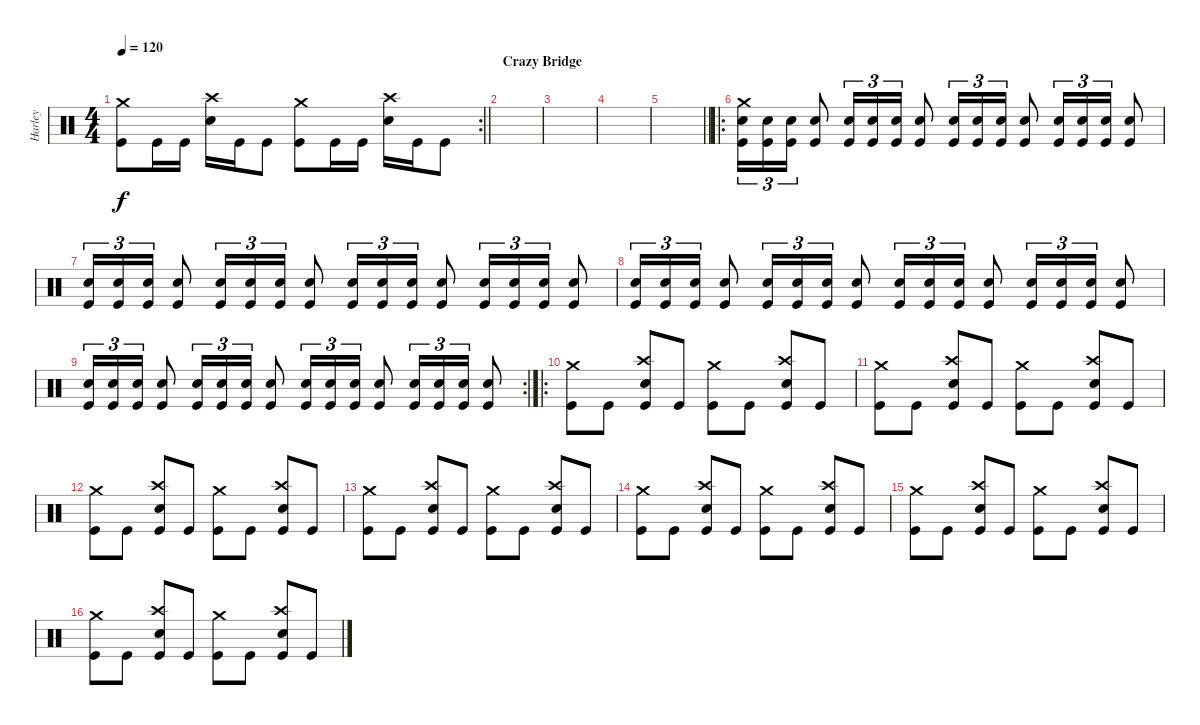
\track ("Harley" "Harley") {instrument percussion}
\staff {score}
\articulation defaults
\rc 2
\ts (4 4)
\tempo 120
\clef neutral
\barLineRight lightlight
\ks c
("Crash medium (hit)" "Kick (hit)").8{dy f} "Kick (hit)".16 "Kick (hit)".16 ("Crash high (hit)" "Snare (hit) 2").16 "Kick (hit)".16 "Kick (hit)".8 ("Crash medium (hit)" "Kick (hit)").8 "Kick (hit)".16 "Kick (hit)".16 ("Crash high (hit)" "Snare (hit) 2").16 "Kick (hit)".16 "Kick (hit)".8 |
\section ("" "Crazy Bridge")
|
|
|
\barLineRight lightlight
|
\ro
\section ("" "")
("Crash medium (hit)" "Snare (hit) 2" "Kick (hit)").16{tu (3 2)} ("Snare (hit) 2" "Kick (hit)").16{tu (3 2)} ("Snare (hit) 2" "Kick (hit)").16{tu (3 2)} ("Snare (hit) 2" "Kick (hit)").8 ("Snare (hit) 2" "Kick (hit)").16{tu (3 2)} ("Snare (hit) 2" "Kick (hit)").16{tu (3 2)} ("Snare (hit) 2" "Kick (hit)").16{tu (3 2)} ("Snare (hit) 2" "Kick (hit)").8 ("Snare (hit) 2" "Kick (hit)").16{tu (3 2)} ("Snare (hit) 2" "Kick (hit)").16{tu (3 2)} ("Snare (hit) 2" "Kick (hit)").16{tu (3 2)} ("Snare (hit) 2" "Kick (hit)").8 ("Snare (hit) 2" "Kick (hit)").16{tu (3 2)} ("Snare (hit) 2" "Kick (hit)").16{tu (3 2)} ("Snare (hit) 2" "Kick (hit)").16{tu (3 2)} ("Snare (hit) 2" "Kick (hit)").8 |
("Snare (hit) 2" "Kick (hit)").16{tu (3 2)} ("Snare (hit) 2" "Kick (hit)").16{tu (3 2)} ("Snare (hit) 2" "Kick (hit)").16{tu (3 2)} ("Snare (hit) 2" "Kick (hit)").8 ("Snare (hit) 2" "Kick (hit)").16{tu (3 2)} ("Snare (hit) 2" "Kick (hit)").16{tu (3 2)} ("Snare (hit) 2" "Kick (hit)").16{tu (3 2)} ("Snare (hit) 2" "Kick (hit)").8 ("Snare (hit) 2" "Kick (hit)").16{tu (3 2)} ("Snare (hit) 2" "Kick (hit)").16{tu (3 2)} ("Snare (hit) 2" "Kick (hit)").16{tu (3 2)} ("Snare (hit) 2" "Kick (hit)").8 ("Snare (hit) 2" "Kick (hit)").16{tu (3 2)} ("Snare (hit) 2" "Kick (hit)").16{tu (3 2)} ("Snare (hit) 2" "Kick (hit)").16{tu (3 2)} ("Snare (hit) 2" "Kick (hit)").8 |
("Snare (hit) 2" "Kick (hit)").16{tu (3 2)} ("Snare (hit) 2" "Kick (hit)").16{tu (3 2)} ("Snare (hit) 2" "Kick (hit)").16{tu (3 2)} ("Snare (hit) 2" "Kick (hit)").8 ("Snare (hit) 2" "Kick (hit)").16{tu (3 2)} ("Snare (hit) 2" "Kick (hit)").16{tu (3 2)} ("Snare (hit) 2" "Kick (hit)").16{tu (3 2)} ("Snare (hit) 2" "Kick (hit)").8 ("Snare (hit) 2" "Kick (hit)").16{tu (3 2)} ("Snare (hit) 2" "Kick (hit)").16{tu (3 2)} ("Snare (hit) 2" "Kick (hit)").16{tu (3 2)} ("Snare (hit) 2" "Kick (hit)").8 ("Snare (hit) 2" "Kick (hit)").16{tu (3 2)} ("Snare (hit) 2" "Kick (hit)").16{tu (3 2)} ("Snare (hit) 2" "Kick (hit)").16{tu (3 2)} ("Snare (hit) 2" "Kick (hit)").8 |
\rc 2
("Snare (hit) 2" "Kick (hit)").16{tu (3 2)} ("Snare (hit) 2" "Kick (hit)").16{tu (3 2)} ("Snare (hit) 2" "Kick (hit)").16{tu (3 2)} ("Snare (hit) 2" "Kick (hit)").8 ("Snare (hit) 2" "Kick (hit)").16{tu (3 2)} ("Snare (hit) 2" "Kick (hit)").16{tu (3 2)} ("Snare (hit) 2" "Kick (hit)").16{tu (3 2)} ("Snare (hit) 2" "Kick (hit)").8 ("Snare (hit) 2" "Kick (hit)").16{tu (3 2)} ("Snare (hit) 2" "Kick (hit)").16{tu (3 2)} ("Snare (hit) 2" "Kick (hit)").16{tu (3 2)} ("Snare (hit) 2" "Kick (hit)").8 ("Snare (hit) 2" "Kick (hit)").16{tu (3 2)} ("Snare (hit) 2" "Kick (hit)").16{tu (3 2)} ("Snare (hit) 2" "Kick (hit)").16{tu (3 2)} ("Snare (hit) 2" "Kick (hit)").8 |
\ro
("Crash medium (hit)" "Kick (hit)").8 "Kick (hit)".8 ("Crash high (hit)" "Snare (hit) 2" "Kick (hit)").8 "Kick (hit)".8 ("Crash medium (hit)" "Kick (hit)").8 "Kick (hit)".8 ("Crash high (hit)" "Snare (hit) 2" "Kick (hit)").8 "Kick (hit)".8 |
("Crash medium (hit)" "Kick (hit)").8 "Kick (hit)".8 ("Crash high (hit)" "Snare (hit) 2" "Kick (hit)").8 "Kick (hit)".8 ("Crash medium (hit)" "Kick (hit)").8 "Kick (hit)".8 ("Crash high (hit)" "Snare (hit) 2" "Kick (hit)").8 "Kick (hit)".8 |
("Crash medium (hit)" "Kick (hit)").8 "Kick (hit)".8 ("Crash high (hit)" "Snare (hit) 2" "Kick (hit)").8 "Kick (hit)".8 ("Crash medium (hit)" "Kick (hit)").8 "Kick (hit)".8 ("Crash high (hit)" "Snare (hit) 2" "Kick (hit)").8 "Kick (hit)".8 |
("Crash medium (hit)" "Kick (hit)").8 "Kick (hit)".8 ("Crash high (hit)" "Snare (hit) 2" "Kick (hit)").8 "Kick (hit)".8 ("Crash medium (hit)" "Kick (hit)").8 "Kick (hit)".8 ("Crash high (hit)" "Snare (hit) 2" "Kick (hit)").8 "Kick (hit)".8 |
("Crash medium (hit)" "Kick (hit)").8 "Kick (hit)".8 ("Crash high (hit)" "Snare (hit) 2" "Kick (hit)").8 "Kick (hit)".8 ("Crash medium (hit)" "Kick (hit)").8 "Kick (hit)".8 ("Crash high (hit)" "Snare (hit) 2" "Kick (hit)").8 "Kick (hit)".8 |
("Crash medium (hit)" "Kick (hit)").8 "Kick (hit)".8 ("Crash high (hit)" "Snare (hit) 2" "Kick (hit)").8 "Kick (hit)".8 ("Crash medium (hit)" "Kick (hit)").8 "Kick (hit)".8 ("Crash high (hit)" "Snare (hit) 2" "Kick (hit)").8 "Kick (hit)".8 |
("Crash medium (hit)" "Kick (hit)").8 "Kick (hit)".8 ("Crash high (hit)" "Snare (hit) 2" "Kick (hit)").8 "Kick (hit)".8 ("Crash medium (hit)" "Kick (hit)").8 "Kick (hit)".8 ("Crash high (hit)" "Snare (hit) 2" "Kick (hit)").8 "Kick (hit)".8
